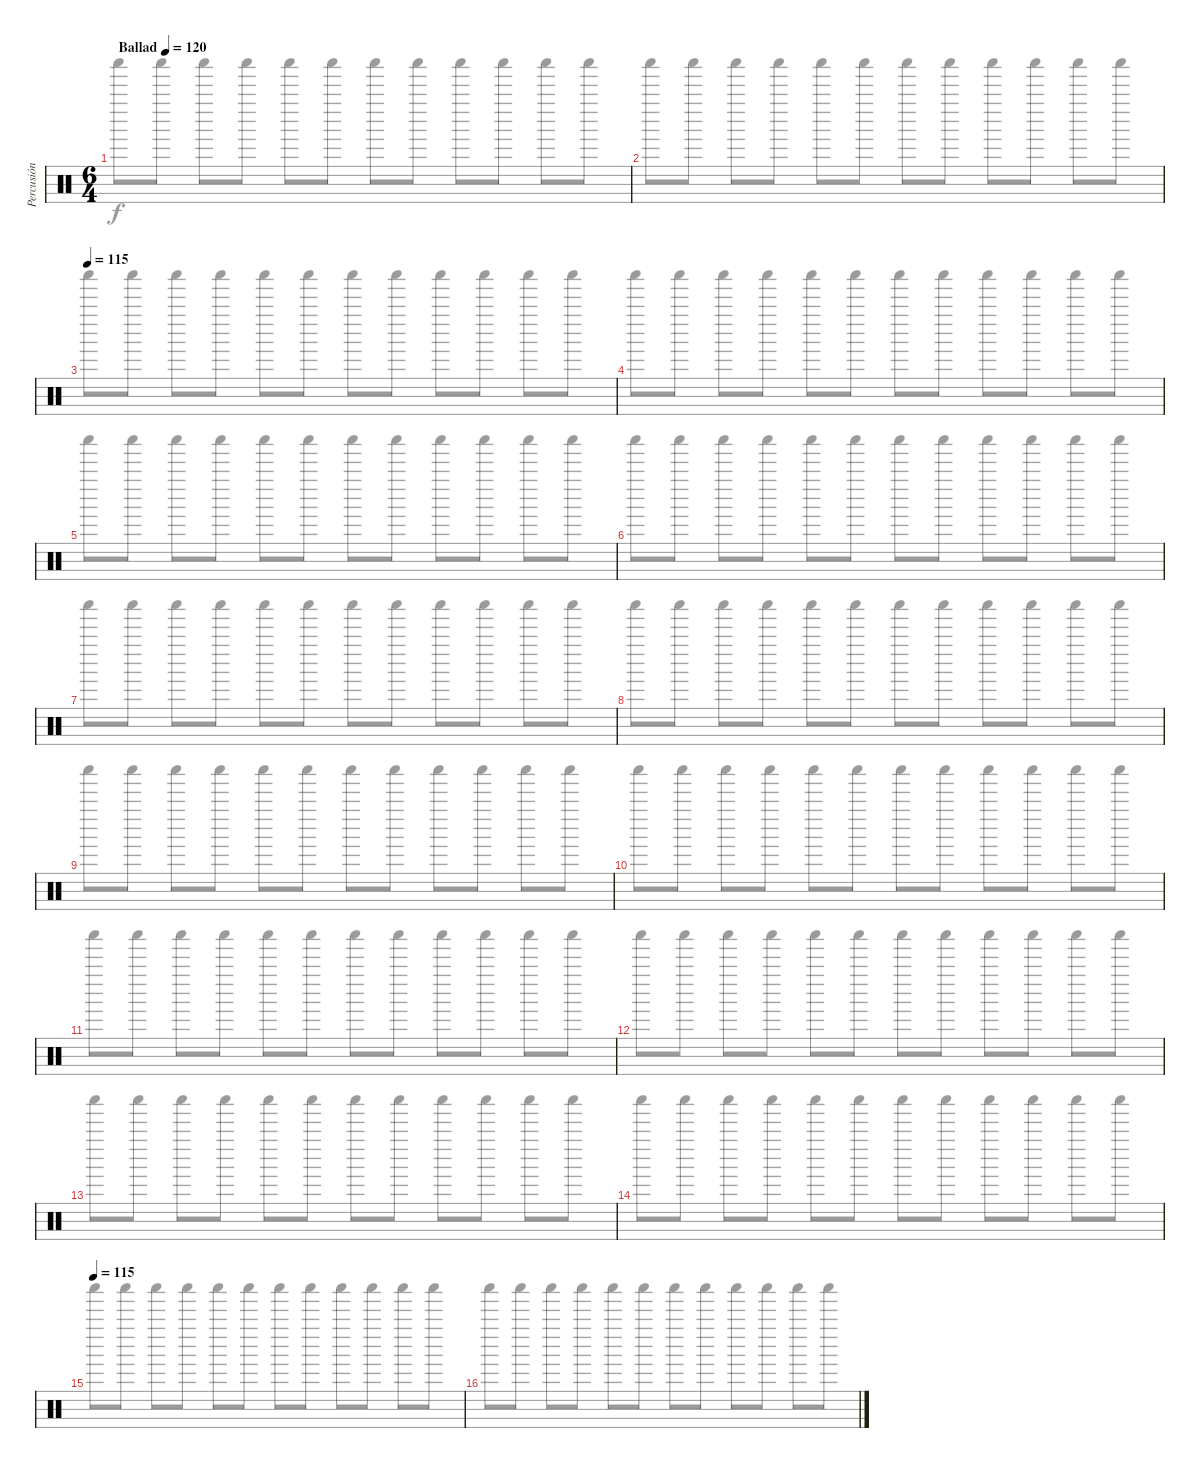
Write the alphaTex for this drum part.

\track ("Percusión" "Percusión") {instrument percussion}
\staff {score}
\articulation defaults
\voice
\ts (6 4)
\tempo (120 "Ballad")
\clef neutral
\ks c
|
|
\tempo 115
|
|
|
|
|
|
|
|
|
|
|
|
\tempo 115
|
\voice
\clef neutral
\ks c "Shaker (hit)".8{dy f} "Shaker (hit)".8 "Shaker (hit)".8 "Shaker (hit)".8 "Shaker (hit)".8 "Shaker (hit)".8 "Shaker (hit)".8 "Shaker (hit)".8 "Shaker (hit)".8 "Shaker (hit)".8 "Shaker (hit)".8 "Shaker (hit)".8
|
"Shaker (hit)".8 "Shaker (hit)".8 "Shaker (hit)".8 "Shaker (hit)".8 "Shaker (hit)".8 "Shaker (hit)".8 "Shaker (hit)".8 "Shaker (hit)".8 "Shaker (hit)".8 "Shaker (hit)".8 "Shaker (hit)".8 "Shaker (hit)".8 |
"Shaker (hit)".8 "Shaker (hit)".8 "Shaker (hit)".8 "Shaker (hit)".8 "Shaker (hit)".8 "Shaker (hit)".8 "Shaker (hit)".8 "Shaker (hit)".8 "Shaker (hit)".8 "Shaker (hit)".8 "Shaker (hit)".8 "Shaker (hit)".8 |
"Shaker (hit)".8 "Shaker (hit)".8 "Shaker (hit)".8 "Shaker (hit)".8 "Shaker (hit)".8 "Shaker (hit)".8 "Shaker (hit)".8 "Shaker (hit)".8 "Shaker (hit)".8 "Shaker (hit)".8 "Shaker (hit)".8 "Shaker (hit)".8 |
"Shaker (hit)".8 "Shaker (hit)".8 "Shaker (hit)".8 "Shaker (hit)".8 "Shaker (hit)".8 "Shaker (hit)".8 "Shaker (hit)".8 "Shaker (hit)".8 "Shaker (hit)".8 "Shaker (hit)".8 "Shaker (hit)".8 "Shaker (hit)".8 |
"Shaker (hit)".8 "Shaker (hit)".8 "Shaker (hit)".8 "Shaker (hit)".8 "Shaker (hit)".8 "Shaker (hit)".8 "Shaker (hit)".8 "Shaker (hit)".8 "Shaker (hit)".8 "Shaker (hit)".8 "Shaker (hit)".8 "Shaker (hit)".8 |
"Shaker (hit)".8 "Shaker (hit)".8 "Shaker (hit)".8 "Shaker (hit)".8 "Shaker (hit)".8 "Shaker (hit)".8 "Shaker (hit)".8 "Shaker (hit)".8 "Shaker (hit)".8 "Shaker (hit)".8 "Shaker (hit)".8 "Shaker (hit)".8 |
"Shaker (hit)".8 "Shaker (hit)".8 "Shaker (hit)".8 "Shaker (hit)".8 "Shaker (hit)".8 "Shaker (hit)".8 "Shaker (hit)".8 "Shaker (hit)".8 "Shaker (hit)".8 "Shaker (hit)".8 "Shaker (hit)".8 "Shaker (hit)".8 |
"Shaker (hit)".8 "Shaker (hit)".8 "Shaker (hit)".8 "Shaker (hit)".8 "Shaker (hit)".8 "Shaker (hit)".8 "Shaker (hit)".8 "Shaker (hit)".8 "Shaker (hit)".8 "Shaker (hit)".8 "Shaker (hit)".8 "Shaker (hit)".8 |
"Shaker (hit)".8 "Shaker (hit)".8 "Shaker (hit)".8 "Shaker (hit)".8 "Shaker (hit)".8 "Shaker (hit)".8 "Shaker (hit)".8 "Shaker (hit)".8 "Shaker (hit)".8 "Shaker (hit)".8 "Shaker (hit)".8 "Shaker (hit)".8 |
"Shaker (hit)".8 "Shaker (hit)".8 "Shaker (hit)".8 "Shaker (hit)".8 "Shaker (hit)".8 "Shaker (hit)".8 "Shaker (hit)".8 "Shaker (hit)".8 "Shaker (hit)".8 "Shaker (hit)".8 "Shaker (hit)".8 "Shaker (hit)".8 |
"Shaker (hit)".8 "Shaker (hit)".8 "Shaker (hit)".8 "Shaker (hit)".8 "Shaker (hit)".8 "Shaker (hit)".8 "Shaker (hit)".8 "Shaker (hit)".8 "Shaker (hit)".8 "Shaker (hit)".8 "Shaker (hit)".8 "Shaker (hit)".8 |
"Shaker (hit)".8 "Shaker (hit)".8 "Shaker (hit)".8 "Shaker (hit)".8 "Shaker (hit)".8 "Shaker (hit)".8 "Shaker (hit)".8 "Shaker (hit)".8 "Shaker (hit)".8 "Shaker (hit)".8 "Shaker (hit)".8 "Shaker (hit)".8 |
"Shaker (hit)".8 "Shaker (hit)".8 "Shaker (hit)".8 "Shaker (hit)".8 "Shaker (hit)".8 "Shaker (hit)".8 "Shaker (hit)".8 "Shaker (hit)".8 "Shaker (hit)".8 "Shaker (hit)".8 "Shaker (hit)".8 "Shaker (hit)".8 |
"Shaker (hit)".8 "Shaker (hit)".8 "Shaker (hit)".8 "Shaker (hit)".8 "Shaker (hit)".8 "Shaker (hit)".8 "Shaker (hit)".8 "Shaker (hit)".8 "Shaker (hit)".8 "Shaker (hit)".8 "Shaker (hit)".8 "Shaker (hit)".8 |
"Shaker (hit)".8 "Shaker (hit)".8 "Shaker (hit)".8 "Shaker (hit)".8 "Shaker (hit)".8 "Shaker (hit)".8 "Shaker (hit)".8 "Shaker (hit)".8 "Shaker (hit)".8 "Shaker (hit)".8 "Shaker (hit)".8 "Shaker (hit)".8
